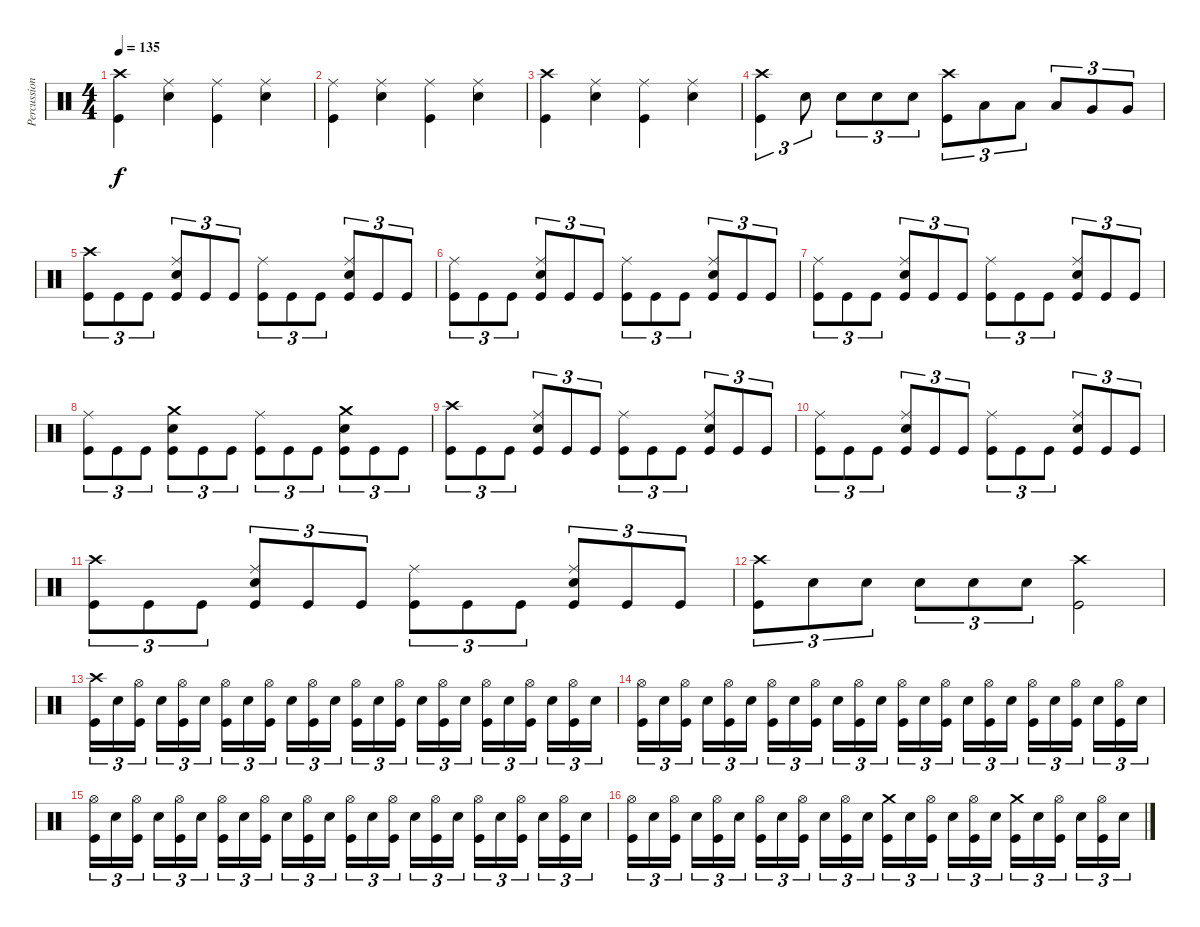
\track ("Percussions" "Percussion") {instrument percussion}
\staff {score}
\articulation defaults
\ts (4 4)
\tempo 135
\clef neutral
\ks c
("Crash high (hit)" "Kick (hit)").4{dy f} ("Ride (middle)" "Electric Snare (hit)").4 ("Ride (middle)" "Kick (hit)").4 ("Ride (middle)" "Electric Snare (hit)").4 |
("Ride (middle)" "Kick (hit)").4 ("Ride (middle)" "Electric Snare (hit)").4 ("Ride (middle)" "Kick (hit)").4 ("Ride (middle)" "Electric Snare (hit)").4 |
("Crash high (hit)" "Kick (hit)").4 ("Ride (middle)" "Electric Snare (hit)").4 ("Ride (middle)" "Kick (hit)").4 ("Ride (middle)" "Electric Snare (hit)").4 |
("Crash high (hit)" "Kick (hit)").4{tu (3 2)} "Electric Snare (hit)".8{tu (3 2)} "Electric Snare (hit)".8{tu (3 2)} "Electric Snare (hit)".8{tu (3 2)} "Electric Snare (hit)".8{tu (3 2)} ("Crash high (hit)" "Kick (hit)").8{tu (3 2)} "Low Tom (hit)".8{tu (3 2)} "Low Tom (hit)".8{tu (3 2)} "Low Tom (hit)".8{tu (3 2)} "Very Low Tom (hit)".8{tu (3 2)} "Very Low Tom (hit)".8{tu (3 2)} |
("Crash high (hit)" "Kick (hit)").8{tu (3 2)} "Kick (hit)".8{tu (3 2)} "Kick (hit)".8{tu (3 2)} ("Ride (middle)" "Electric Snare (hit)" "Kick (hit)").8{tu (3 2)} "Kick (hit)".8{tu (3 2)} "Kick (hit)".8{tu (3 2)} ("Ride (middle)" "Kick (hit)").8{tu (3 2)} "Kick (hit)".8{tu (3 2)} "Kick (hit)".8{tu (3 2)} ("Ride (middle)" "Electric Snare (hit)" "Kick (hit)").8{tu (3 2)} "Kick (hit)".8{tu (3 2)} "Kick (hit)".8{tu (3 2)} |
("Ride (middle)" "Kick (hit)").8{tu (3 2)} "Kick (hit)".8{tu (3 2)} "Kick (hit)".8{tu (3 2)} ("Ride (middle)" "Electric Snare (hit)" "Kick (hit)").8{tu (3 2)} "Kick (hit)".8{tu (3 2)} "Kick (hit)".8{tu (3 2)} ("Ride (middle)" "Kick (hit)").8{tu (3 2)} "Kick (hit)".8{tu (3 2)} "Kick (hit)".8{tu (3 2)} ("Ride (middle)" "Electric Snare (hit)" "Kick (hit)").8{tu (3 2)} "Kick (hit)".8{tu (3 2)} "Kick (hit)".8{tu (3 2)} |
("Ride (middle)" "Kick (hit)").8{tu (3 2)} "Kick (hit)".8{tu (3 2)} "Kick (hit)".8{tu (3 2)} ("Ride (middle)" "Electric Snare (hit)" "Kick (hit)").8{tu (3 2)} "Kick (hit)".8{tu (3 2)} "Kick (hit)".8{tu (3 2)} ("Ride (middle)" "Kick (hit)").8{tu (3 2)} "Kick (hit)".8{tu (3 2)} "Kick (hit)".8{tu (3 2)} ("Ride (middle)" "Electric Snare (hit)" "Kick (hit)").8{tu (3 2)} "Kick (hit)".8{tu (3 2)} "Kick (hit)".8{tu (3 2)} |
("Ride (middle)" "Kick (hit)").8{tu (3 2)} "Kick (hit)".8{tu (3 2)} "Kick (hit)".8{tu (3 2)} ("Crash medium (hit)" "Electric Snare (hit)" "Kick (hit)").8{tu (3 2)} "Kick (hit)".8{tu (3 2)} "Kick (hit)".8{tu (3 2)} ("Ride (middle)" "Kick (hit)").8{tu (3 2)} "Kick (hit)".8{tu (3 2)} "Kick (hit)".8{tu (3 2)} ("Crash medium (hit)" "Electric Snare (hit)" "Kick (hit)").8{tu (3 2)} "Kick (hit)".8{tu (3 2)} "Kick (hit)".8{tu (3 2)} |
("Crash high (hit)" "Kick (hit)").8{tu (3 2)} "Kick (hit)".8{tu (3 2)} "Kick (hit)".8{tu (3 2)} ("Ride (middle)" "Electric Snare (hit)" "Kick (hit)").8{tu (3 2)} "Kick (hit)".8{tu (3 2)} "Kick (hit)".8{tu (3 2)} ("Ride (middle)" "Kick (hit)").8{tu (3 2)} "Kick (hit)".8{tu (3 2)} "Kick (hit)".8{tu (3 2)} ("Ride (middle)" "Electric Snare (hit)" "Kick (hit)").8{tu (3 2)} "Kick (hit)".8{tu (3 2)} "Kick (hit)".8{tu (3 2)} |
("Ride (middle)" "Kick (hit)").8{tu (3 2)} "Kick (hit)".8{tu (3 2)} "Kick (hit)".8{tu (3 2)} ("Ride (middle)" "Electric Snare (hit)" "Kick (hit)").8{tu (3 2)} "Kick (hit)".8{tu (3 2)} "Kick (hit)".8{tu (3 2)} ("Ride (middle)" "Kick (hit)").8{tu (3 2)} "Kick (hit)".8{tu (3 2)} "Kick (hit)".8{tu (3 2)} ("Ride (middle)" "Electric Snare (hit)" "Kick (hit)").8{tu (3 2)} "Kick (hit)".8{tu (3 2)} "Kick (hit)".8{tu (3 2)} |
("Crash high (hit)" "Kick (hit)").8{tu (3 2)} "Kick (hit)".8{tu (3 2)} "Kick (hit)".8{tu (3 2)} ("Ride (middle)" "Electric Snare (hit)" "Kick (hit)").8{tu (3 2)} "Kick (hit)".8{tu (3 2)} "Kick (hit)".8{tu (3 2)} ("Ride (middle)" "Kick (hit)").8{tu (3 2)} "Kick (hit)".8{tu (3 2)} "Kick (hit)".8{tu (3 2)} ("Ride (middle)" "Electric Snare (hit)" "Kick (hit)").8{tu (3 2)} "Kick (hit)".8{tu (3 2)} "Kick (hit)".8{tu (3 2)} |
("Crash high (hit)" "Kick (hit)").8{tu (3 2)} "Electric Snare (hit)".8{tu (3 2)} "Electric Snare (hit)".8{tu (3 2)} "Electric Snare (hit)".8{tu (3 2)} "Electric Snare (hit)".8{tu (3 2)} "Electric Snare (hit)".8{tu (3 2)} ("Crash high (hit)" "Kick (hit)").2 |
("Crash high (hit)" "Kick (hit)").16{tu (3 2)} "Electric Snare (hit)".16{tu (3 2)} ("Hi-Hat (open)" "Kick (hit)").16{tu (3 2) beam splitsecondary} "Electric Snare (hit)".16{tu (3 2)} ("Hi-Hat (open)" "Kick (hit)").16{tu (3 2)} "Electric Snare (hit)".16{tu (3 2)} ("Hi-Hat (open)" "Kick (hit)").16{tu (3 2)} "Electric Snare (hit)".16{tu (3 2)} ("Hi-Hat (open)" "Kick (hit)").16{tu (3 2) beam splitsecondary} "Electric Snare (hit)".16{tu (3 2)} ("Hi-Hat (open)" "Kick (hit)").16{tu (3 2)} "Electric Snare (hit)".16{tu (3 2)} ("Hi-Hat (open)" "Kick (hit)").16{tu (3 2)} "Electric Snare (hit)".16{tu (3 2)} ("Hi-Hat (open)" "Kick (hit)").16{tu (3 2) beam splitsecondary} "Electric Snare (hit)".16{tu (3 2)} ("Hi-Hat (open)" "Kick (hit)").16{tu (3 2)} "Electric Snare (hit)".16{tu (3 2)} ("Hi-Hat (open)" "Kick (hit)").16{tu (3 2)} "Electric Snare (hit)".16{tu (3 2)} ("Hi-Hat (open)" "Kick (hit)").16{tu (3 2) beam splitsecondary} "Electric Snare (hit)".16{tu (3 2)} ("Hi-Hat (open)" "Kick (hit)").16{tu (3 2)} "Electric Snare (hit)".16{tu (3 2)} |
("Hi-Hat (open)" "Kick (hit)").16{tu (3 2)} "Electric Snare (hit)".16{tu (3 2)} ("Hi-Hat (open)" "Kick (hit)").16{tu (3 2) beam splitsecondary} "Electric Snare (hit)".16{tu (3 2)} ("Hi-Hat (open)" "Kick (hit)").16{tu (3 2)} "Electric Snare (hit)".16{tu (3 2)} ("Hi-Hat (open)" "Kick (hit)").16{tu (3 2)} "Electric Snare (hit)".16{tu (3 2)} ("Hi-Hat (open)" "Kick (hit)").16{tu (3 2) beam splitsecondary} "Electric Snare (hit)".16{tu (3 2)} ("Hi-Hat (open)" "Kick (hit)").16{tu (3 2)} "Electric Snare (hit)".16{tu (3 2)} ("Hi-Hat (open)" "Kick (hit)").16{tu (3 2)} "Electric Snare (hit)".16{tu (3 2)} ("Hi-Hat (open)" "Kick (hit)").16{tu (3 2) beam splitsecondary} "Electric Snare (hit)".16{tu (3 2)} ("Hi-Hat (open)" "Kick (hit)").16{tu (3 2)} "Electric Snare (hit)".16{tu (3 2)} ("Hi-Hat (open)" "Kick (hit)").16{tu (3 2)} "Electric Snare (hit)".16{tu (3 2)} ("Hi-Hat (open)" "Kick (hit)").16{tu (3 2) beam splitsecondary} "Electric Snare (hit)".16{tu (3 2)} ("Hi-Hat (open)" "Kick (hit)").16{tu (3 2)} "Electric Snare (hit)".16{tu (3 2)} |
("Hi-Hat (open)" "Kick (hit)").16{tu (3 2)} "Electric Snare (hit)".16{tu (3 2)} ("Hi-Hat (open)" "Kick (hit)").16{tu (3 2) beam splitsecondary} "Electric Snare (hit)".16{tu (3 2)} ("Hi-Hat (open)" "Kick (hit)").16{tu (3 2)} "Electric Snare (hit)".16{tu (3 2)} ("Hi-Hat (open)" "Kick (hit)").16{tu (3 2)} "Electric Snare (hit)".16{tu (3 2)} ("Hi-Hat (open)" "Kick (hit)").16{tu (3 2) beam splitsecondary} "Electric Snare (hit)".16{tu (3 2)} ("Hi-Hat (open)" "Kick (hit)").16{tu (3 2)} "Electric Snare (hit)".16{tu (3 2)} ("Hi-Hat (open)" "Kick (hit)").16{tu (3 2)} "Electric Snare (hit)".16{tu (3 2)} ("Hi-Hat (open)" "Kick (hit)").16{tu (3 2) beam splitsecondary} "Electric Snare (hit)".16{tu (3 2)} ("Hi-Hat (open)" "Kick (hit)").16{tu (3 2)} "Electric Snare (hit)".16{tu (3 2)} ("Hi-Hat (open)" "Kick (hit)").16{tu (3 2)} "Electric Snare (hit)".16{tu (3 2)} ("Hi-Hat (open)" "Kick (hit)").16{tu (3 2) beam splitsecondary} "Electric Snare (hit)".16{tu (3 2)} ("Hi-Hat (open)" "Kick (hit)").16{tu (3 2)} "Electric Snare (hit)".16{tu (3 2)} |
("Hi-Hat (open)" "Kick (hit)").16{tu (3 2)} "Electric Snare (hit)".16{tu (3 2)} ("Hi-Hat (open)" "Kick (hit)").16{tu (3 2) beam splitsecondary} "Electric Snare (hit)".16{tu (3 2)} ("Hi-Hat (open)" "Kick (hit)").16{tu (3 2)} "Electric Snare (hit)".16{tu (3 2)} ("Hi-Hat (open)" "Kick (hit)").16{tu (3 2)} "Electric Snare (hit)".16{tu (3 2)} ("Hi-Hat (open)" "Kick (hit)").16{tu (3 2) beam splitsecondary} "Electric Snare (hit)".16{tu (3 2)} ("Hi-Hat (open)" "Kick (hit)").16{tu (3 2)} "Electric Snare (hit)".16{tu (3 2)} ("Crash medium (hit)" "Kick (hit)").16{tu (3 2)} "Electric Snare (hit)".16{tu (3 2)} ("Hi-Hat (open)" "Kick (hit)").16{tu (3 2) beam splitsecondary} "Electric Snare (hit)".16{tu (3 2)} ("Hi-Hat (open)" "Kick (hit)").16{tu (3 2)} "Electric Snare (hit)".16{tu (3 2)} ("Crash medium (hit)" "Kick (hit)").16{tu (3 2)} "Electric Snare (hit)".16{tu (3 2)} ("Hi-Hat (open)" "Kick (hit)").16{tu (3 2) beam splitsecondary} "Electric Snare (hit)".16{tu (3 2)} ("Hi-Hat (open)" "Kick (hit)").16{tu (3 2)} "Electric Snare (hit)".16{tu (3 2)}
